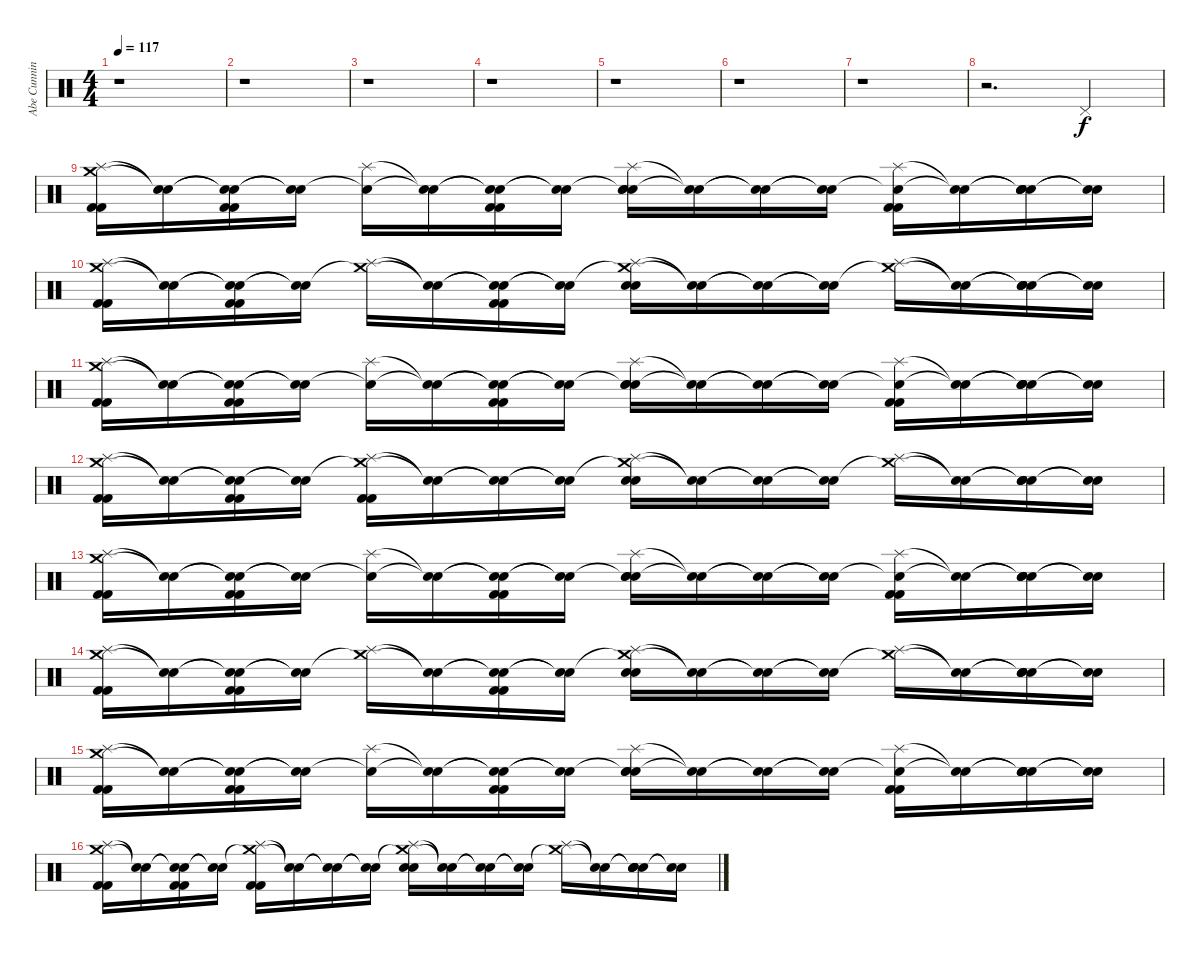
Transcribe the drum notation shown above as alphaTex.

\track ("Abe Cunningham" "Abe Cunnin") {instrument percussion}
\staff {score}
\articulation defaults
\ts (4 4)
\tempo 117
\clef neutral
\ks c
r.1{dy f} |
r.1 |
r.1 |
r.1 |
r.1 |
r.1 |
r.1 |
r.2{d} "Pedal Hi-Hat (hit)".4 |
("Splash (hit)" "Crash medium (hit)" "Kick (hit) 2" "Kick (hit) 2").16 ("Snare (hit)"{t} "Snare (hit)"{t}).16 ("Snare (hit)"{t} "Snare (hit)"{t} "Kick (hit) 2" "Kick (hit) 2").16 ("Snare (hit)"{t} "Snare (hit)"{t}).16 ("Splash (hit)" "Snare (hit)"{t}).16 ("Snare (hit)"{t} "Snare (hit)"{t}).16 ("Snare (hit)"{t} "Snare (hit)"{t} "Kick (hit) 2" "Kick (hit) 2").16 ("Snare (hit)"{t} "Snare (hit)"{t}).16 ("Splash (hit)" "Snare (hit)"{t} "Electric Snare (hit)" "Electric Snare (hit)").16 ("Snare (hit)"{t} "Snare (hit)"{t}).16 ("Snare (hit)"{t} "Snare (hit)"{t}).16 ("Snare (hit)"{t} "Snare (hit)"{t}).16 ("Splash (hit)" "Snare (hit)"{t} "Kick (hit) 2" "Kick (hit) 2").16 ("Snare (hit)"{t} "Snare (hit)"{t}).16 ("Snare (hit)"{t} "Snare (hit)"{t} "Electric Snare (hit)" "Electric Snare (hit)").16 ("Snare (hit)"{t} "Snare (hit)"{t}).16 |
("Splash (hit)" "Crash medium (hit)" "Kick (hit) 2" "Kick (hit) 2").16 ("Snare (hit)"{t} "Snare (hit)"{t}).16 ("Snare (hit)"{t} "Snare (hit)"{t} "Kick (hit) 2" "Kick (hit) 2").16 ("Snare (hit)"{t} "Snare (hit)"{t}).16 ("Splash (hit)" "Crash medium (hit)"{t}).16 ("Snare (hit)"{t} "Snare (hit)"{t}).16 ("Snare (hit)"{t} "Snare (hit)"{t} "Kick (hit) 2" "Kick (hit) 2").16 ("Snare (hit)"{t} "Snare (hit)"{t}).16 ("Splash (hit)" "Crash medium (hit)"{t} "Electric Snare (hit)" "Electric Snare (hit)").16 ("Snare (hit)"{t} "Snare (hit)"{t}).16 ("Snare (hit)"{t} "Snare (hit)"{t}).16 ("Snare (hit)"{t} "Snare (hit)"{t}).16 ("Splash (hit)" "Crash medium (hit)"{t}).16 ("Snare (hit)"{t} "Snare (hit)"{t}).16 ("Snare (hit)"{t} "Snare (hit)"{t} "Electric Snare (hit)" "Electric Snare (hit)").16 ("Snare (hit)"{t} "Snare (hit)"{t}).16 |
("Splash (hit)" "Crash medium (hit)" "Kick (hit) 2" "Kick (hit) 2").16 ("Snare (hit)"{t} "Snare (hit)"{t}).16 ("Snare (hit)"{t} "Snare (hit)"{t} "Kick (hit) 2" "Kick (hit) 2").16 ("Snare (hit)"{t} "Snare (hit)"{t}).16 ("Splash (hit)" "Snare (hit)"{t}).16 ("Snare (hit)"{t} "Snare (hit)"{t}).16 ("Snare (hit)"{t} "Snare (hit)"{t} "Kick (hit) 2" "Kick (hit) 2").16 ("Snare (hit)"{t} "Snare (hit)"{t}).16 ("Splash (hit)" "Snare (hit)"{t} "Electric Snare (hit)" "Electric Snare (hit)").16 ("Snare (hit)"{t} "Snare (hit)"{t}).16 ("Snare (hit)"{t} "Snare (hit)"{t}).16 ("Snare (hit)"{t} "Snare (hit)"{t}).16 ("Splash (hit)" "Snare (hit)"{t} "Kick (hit) 2" "Kick (hit) 2").16 ("Snare (hit)"{t} "Snare (hit)"{t}).16 ("Snare (hit)"{t} "Snare (hit)"{t} "Electric Snare (hit)" "Electric Snare (hit)").16 ("Snare (hit)"{t} "Snare (hit)"{t}).16 |
("Splash (hit)" "Crash medium (hit)" "Kick (hit) 2" "Kick (hit) 2").16 ("Snare (hit)"{t} "Snare (hit)"{t}).16 ("Snare (hit)"{t} "Snare (hit)"{t} "Kick (hit) 2" "Kick (hit) 2").16 ("Snare (hit)"{t} "Snare (hit)"{t}).16 ("Splash (hit)" "Crash medium (hit)"{t} "Kick (hit) 2" "Kick (hit) 2").16 ("Snare (hit)"{t} "Snare (hit)"{t}).16 ("Snare (hit)"{t} "Snare (hit)"{t}).16 ("Snare (hit)"{t} "Snare (hit)"{t}).16 ("Splash (hit)" "Crash medium (hit)"{t} "Electric Snare (hit)" "Electric Snare (hit)").16 ("Snare (hit)"{t} "Snare (hit)"{t}).16 ("Snare (hit)"{t} "Snare (hit)"{t}).16 ("Snare (hit)"{t} "Snare (hit)"{t}).16 ("Splash (hit)" "Crash medium (hit)"{t}).16 ("Snare (hit)"{t} "Snare (hit)"{t}).16 ("Snare (hit)"{t} "Snare (hit)"{t} "Electric Snare (hit)" "Electric Snare (hit)").16 ("Snare (hit)"{t} "Snare (hit)"{t}).16 |
("Splash (hit)" "Crash medium (hit)" "Kick (hit) 2" "Kick (hit) 2").16 ("Snare (hit)"{t} "Snare (hit)"{t}).16 ("Snare (hit)"{t} "Snare (hit)"{t} "Kick (hit) 2" "Kick (hit) 2").16 ("Snare (hit)"{t} "Snare (hit)"{t}).16 ("Splash (hit)" "Snare (hit)"{t}).16 ("Snare (hit)"{t} "Snare (hit)"{t}).16 ("Snare (hit)"{t} "Snare (hit)"{t} "Kick (hit) 2" "Kick (hit) 2").16 ("Snare (hit)"{t} "Snare (hit)"{t}).16 ("Splash (hit)" "Snare (hit)"{t} "Electric Snare (hit)" "Electric Snare (hit)").16 ("Snare (hit)"{t} "Snare (hit)"{t}).16 ("Snare (hit)"{t} "Snare (hit)"{t}).16 ("Snare (hit)"{t} "Snare (hit)"{t}).16 ("Splash (hit)" "Snare (hit)"{t} "Kick (hit) 2" "Kick (hit) 2").16 ("Snare (hit)"{t} "Snare (hit)"{t}).16 ("Snare (hit)"{t} "Snare (hit)"{t} "Electric Snare (hit)" "Electric Snare (hit)").16 ("Snare (hit)"{t} "Snare (hit)"{t}).16 |
("Splash (hit)" "Crash medium (hit)" "Kick (hit) 2" "Kick (hit) 2").16 ("Snare (hit)"{t} "Snare (hit)"{t}).16 ("Snare (hit)"{t} "Snare (hit)"{t} "Kick (hit) 2" "Kick (hit) 2").16 ("Snare (hit)"{t} "Snare (hit)"{t}).16 ("Splash (hit)" "Crash medium (hit)"{t}).16 ("Snare (hit)"{t} "Snare (hit)"{t}).16 ("Snare (hit)"{t} "Snare (hit)"{t} "Kick (hit) 2" "Kick (hit) 2").16 ("Snare (hit)"{t} "Snare (hit)"{t}).16 ("Splash (hit)" "Crash medium (hit)"{t} "Electric Snare (hit)" "Electric Snare (hit)").16 ("Snare (hit)"{t} "Snare (hit)"{t}).16 ("Snare (hit)"{t} "Snare (hit)"{t}).16 ("Snare (hit)"{t} "Snare (hit)"{t}).16 ("Splash (hit)" "Crash medium (hit)"{t}).16 ("Snare (hit)"{t} "Snare (hit)"{t}).16 ("Snare (hit)"{t} "Snare (hit)"{t} "Electric Snare (hit)" "Electric Snare (hit)").16 ("Snare (hit)"{t} "Snare (hit)"{t}).16 |
("Splash (hit)" "Crash medium (hit)" "Kick (hit) 2" "Kick (hit) 2").16 ("Snare (hit)"{t} "Snare (hit)"{t}).16 ("Snare (hit)"{t} "Snare (hit)"{t} "Kick (hit) 2" "Kick (hit) 2").16 ("Snare (hit)"{t} "Snare (hit)"{t}).16 ("Splash (hit)" "Snare (hit)"{t}).16 ("Snare (hit)"{t} "Snare (hit)"{t}).16 ("Snare (hit)"{t} "Snare (hit)"{t} "Kick (hit) 2" "Kick (hit) 2").16 ("Snare (hit)"{t} "Snare (hit)"{t}).16 ("Splash (hit)" "Snare (hit)"{t} "Electric Snare (hit)" "Electric Snare (hit)").16 ("Snare (hit)"{t} "Snare (hit)"{t}).16 ("Snare (hit)"{t} "Snare (hit)"{t}).16 ("Snare (hit)"{t} "Snare (hit)"{t}).16 ("Splash (hit)" "Snare (hit)"{t} "Kick (hit) 2" "Kick (hit) 2").16 ("Snare (hit)"{t} "Snare (hit)"{t}).16 ("Snare (hit)"{t} "Snare (hit)"{t} "Electric Snare (hit)" "Electric Snare (hit)").16 ("Snare (hit)"{t} "Snare (hit)"{t}).16 |
("Splash (hit)" "Crash medium (hit)" "Kick (hit) 2" "Kick (hit) 2").16 ("Snare (hit)"{t} "Snare (hit)"{t}).16 ("Snare (hit)"{t} "Snare (hit)"{t} "Kick (hit) 2" "Kick (hit) 2").16 ("Snare (hit)"{t} "Snare (hit)"{t}).16 ("Splash (hit)" "Crash medium (hit)"{t} "Kick (hit) 2" "Kick (hit) 2").16 ("Snare (hit)"{t} "Snare (hit)"{t}).16 ("Snare (hit)"{t} "Snare (hit)"{t}).16 ("Snare (hit)"{t} "Snare (hit)"{t}).16 ("Splash (hit)" "Crash medium (hit)"{t} "Electric Snare (hit)" "Electric Snare (hit)").16 ("Snare (hit)"{t} "Snare (hit)"{t}).16 ("Snare (hit)"{t} "Snare (hit)"{t}).16 ("Snare (hit)"{t} "Snare (hit)"{t}).16 ("Splash (hit)" "Crash medium (hit)"{t}).16 ("Snare (hit)"{t} "Snare (hit)"{t}).16 ("Snare (hit)"{t} "Snare (hit)"{t} "Electric Snare (hit)" "Electric Snare (hit)").16 ("Snare (hit)"{t} "Snare (hit)"{t}).16
